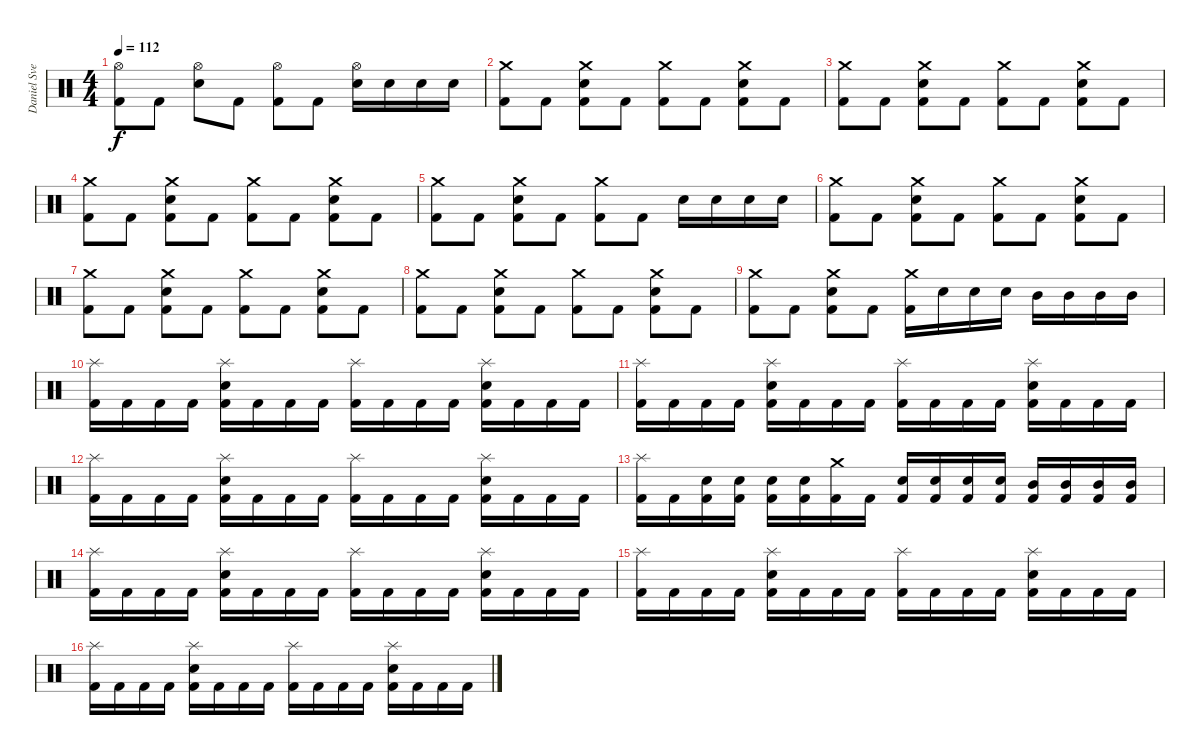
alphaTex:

\track ("Daniel Svensson" "Daniel Sve") {instrument percussion}
\staff {score}
\articulation defaults
\ts (4 4)
\tempo 112
\clef neutral
\ks c
("Hi-Hat (open)" "Kick (hit) 2").8{dy f} "Kick (hit) 2".8 ("Hi-Hat (open)" "Snare (hit) 2").8 "Kick (hit) 2".8 ("Hi-Hat (open)" "Kick (hit) 2").8 "Kick (hit) 2".8 ("Hi-Hat (open)" "Snare (hit) 2").16 "Snare (hit) 2".16 "Snare (hit) 2".16 "Snare (hit) 2".16 |
("Crash medium (hit)" "Kick (hit) 2").8 "Kick (hit) 2".8 ("Crash medium (hit)" "Snare (hit) 2" "Kick (hit) 2").8 "Kick (hit) 2".8 ("Crash medium (hit)" "Kick (hit) 2").8 "Kick (hit) 2".8 ("Crash medium (hit)" "Snare (hit) 2" "Kick (hit) 2").8 "Kick (hit) 2".8 |
("Crash medium (hit)" "Kick (hit) 2").8 "Kick (hit) 2".8 ("Crash medium (hit)" "Snare (hit) 2" "Kick (hit) 2").8 "Kick (hit) 2".8 ("Crash medium (hit)" "Kick (hit) 2").8 "Kick (hit) 2".8 ("Crash medium (hit)" "Snare (hit) 2" "Kick (hit) 2").8 "Kick (hit) 2".8 |
("Crash medium (hit)" "Kick (hit) 2").8 "Kick (hit) 2".8 ("Crash medium (hit)" "Snare (hit) 2" "Kick (hit) 2").8 "Kick (hit) 2".8 ("Crash medium (hit)" "Kick (hit) 2").8 "Kick (hit) 2".8 ("Crash medium (hit)" "Snare (hit) 2" "Kick (hit) 2").8 "Kick (hit) 2".8 |
("Crash medium (hit)" "Kick (hit) 2").8 "Kick (hit) 2".8 ("Crash medium (hit)" "Snare (hit) 2" "Kick (hit) 2").8 "Kick (hit) 2".8 ("Crash medium (hit)" "Kick (hit) 2").8 "Kick (hit) 2".8 "Snare (hit) 2".16 "Snare (hit) 2".16 "Snare (hit) 2".16 "Snare (hit) 2".16 |
("Crash medium (hit)" "Kick (hit) 2").8 "Kick (hit) 2".8 ("Crash medium (hit)" "Snare (hit) 2" "Kick (hit) 2").8 "Kick (hit) 2".8 ("Crash medium (hit)" "Kick (hit) 2").8 "Kick (hit) 2".8 ("Crash medium (hit)" "Snare (hit) 2" "Kick (hit) 2").8 "Kick (hit) 2".8 |
("Crash medium (hit)" "Kick (hit) 2").8 "Kick (hit) 2".8 ("Crash medium (hit)" "Snare (hit) 2" "Kick (hit) 2").8 "Kick (hit) 2".8 ("Crash medium (hit)" "Kick (hit) 2").8 "Kick (hit) 2".8 ("Crash medium (hit)" "Snare (hit) 2" "Kick (hit) 2").8 "Kick (hit) 2".8 |
("Crash medium (hit)" "Kick (hit) 2").8 "Kick (hit) 2".8 ("Crash medium (hit)" "Snare (hit) 2" "Kick (hit) 2").8 "Kick (hit) 2".8 ("Crash medium (hit)" "Kick (hit) 2").8 "Kick (hit) 2".8 ("Crash medium (hit)" "Snare (hit) 2" "Kick (hit) 2").8 "Kick (hit) 2".8 |
("Crash medium (hit)" "Kick (hit) 2").8 "Kick (hit) 2".8 ("Crash medium (hit)" "Snare (hit) 2" "Kick (hit) 2").8 "Kick (hit) 2".8 ("Crash medium (hit)" "Kick (hit) 2").16 "Snare (hit) 2".16 "Snare (hit) 2".16 "Snare (hit) 2".16 "Mid Tom (hit)".16 "Mid Tom (hit)".16 "Mid Tom (hit)".16 "Mid Tom (hit)".16 |
("Splash (hit)" "Kick (hit) 2").16 "Kick (hit) 2".16 "Kick (hit) 2".16 "Kick (hit) 2".16 ("Splash (hit)" "Snare (hit) 2" "Kick (hit) 2").16 "Kick (hit) 2".16 "Kick (hit) 2".16 "Kick (hit) 2".16 ("Splash (hit)" "Kick (hit) 2").16 "Kick (hit) 2".16 "Kick (hit) 2".16 "Kick (hit) 2".16 ("Splash (hit)" "Snare (hit) 2" "Kick (hit) 2").16 "Kick (hit) 2".16 "Kick (hit) 2".16 "Kick (hit) 2".16 |
("Splash (hit)" "Kick (hit) 2").16 "Kick (hit) 2".16 "Kick (hit) 2".16 "Kick (hit) 2".16 ("Splash (hit)" "Snare (hit) 2" "Kick (hit) 2").16 "Kick (hit) 2".16 "Kick (hit) 2".16 "Kick (hit) 2".16 ("Splash (hit)" "Kick (hit) 2").16 "Kick (hit) 2".16 "Kick (hit) 2".16 "Kick (hit) 2".16 ("Splash (hit)" "Snare (hit) 2" "Kick (hit) 2").16 "Kick (hit) 2".16 "Kick (hit) 2".16 "Kick (hit) 2".16 |
("Splash (hit)" "Kick (hit) 2").16 "Kick (hit) 2".16 "Kick (hit) 2".16 "Kick (hit) 2".16 ("Splash (hit)" "Snare (hit) 2" "Kick (hit) 2").16 "Kick (hit) 2".16 "Kick (hit) 2".16 "Kick (hit) 2".16 ("Splash (hit)" "Kick (hit) 2").16 "Kick (hit) 2".16 "Kick (hit) 2".16 "Kick (hit) 2".16 ("Splash (hit)" "Snare (hit) 2" "Kick (hit) 2").16 "Kick (hit) 2".16 "Kick (hit) 2".16 "Kick (hit) 2".16 |
("Splash (hit)" "Kick (hit) 2").16 "Kick (hit) 2".16 ("Snare (hit) 2" "Kick (hit) 2").16 ("Snare (hit) 2" "Kick (hit) 2").16 ("Snare (hit) 2" "Kick (hit) 2").16 ("Snare (hit) 2" "Kick (hit) 2").16 ("Crash medium (hit)" "Kick (hit) 2").16 "Kick (hit) 2".16 ("Snare (hit) 2" "Kick (hit) 2").16 ("Snare (hit) 2" "Kick (hit) 2").16 ("Snare (hit) 2" "Kick (hit) 2").16 ("Snare (hit) 2" "Kick (hit) 2").16 ("Mid Tom (hit)" "Kick (hit) 2").16 ("Mid Tom (hit)" "Kick (hit) 2").16 ("Mid Tom (hit)" "Kick (hit) 2").16 ("Mid Tom (hit)" "Kick (hit) 2").16 |
("Splash (hit)" "Kick (hit) 2").16 "Kick (hit) 2".16 "Kick (hit) 2".16 "Kick (hit) 2".16 ("Splash (hit)" "Snare (hit) 2" "Kick (hit) 2").16 "Kick (hit) 2".16 "Kick (hit) 2".16 "Kick (hit) 2".16 ("Splash (hit)" "Kick (hit) 2").16 "Kick (hit) 2".16 "Kick (hit) 2".16 "Kick (hit) 2".16 ("Splash (hit)" "Snare (hit) 2" "Kick (hit) 2").16 "Kick (hit) 2".16 "Kick (hit) 2".16 "Kick (hit) 2".16 |
("Splash (hit)" "Kick (hit) 2").16 "Kick (hit) 2".16 "Kick (hit) 2".16 "Kick (hit) 2".16 ("Splash (hit)" "Snare (hit) 2" "Kick (hit) 2").16 "Kick (hit) 2".16 "Kick (hit) 2".16 "Kick (hit) 2".16 ("Splash (hit)" "Kick (hit) 2").16 "Kick (hit) 2".16 "Kick (hit) 2".16 "Kick (hit) 2".16 ("Splash (hit)" "Snare (hit) 2" "Kick (hit) 2").16 "Kick (hit) 2".16 "Kick (hit) 2".16 "Kick (hit) 2".16 |
("Splash (hit)" "Kick (hit) 2").16 "Kick (hit) 2".16 "Kick (hit) 2".16 "Kick (hit) 2".16 ("Splash (hit)" "Snare (hit) 2" "Kick (hit) 2").16 "Kick (hit) 2".16 "Kick (hit) 2".16 "Kick (hit) 2".16 ("Splash (hit)" "Kick (hit) 2").16 "Kick (hit) 2".16 "Kick (hit) 2".16 "Kick (hit) 2".16 ("Splash (hit)" "Snare (hit) 2" "Kick (hit) 2").16 "Kick (hit) 2".16 "Kick (hit) 2".16 "Kick (hit) 2".16
